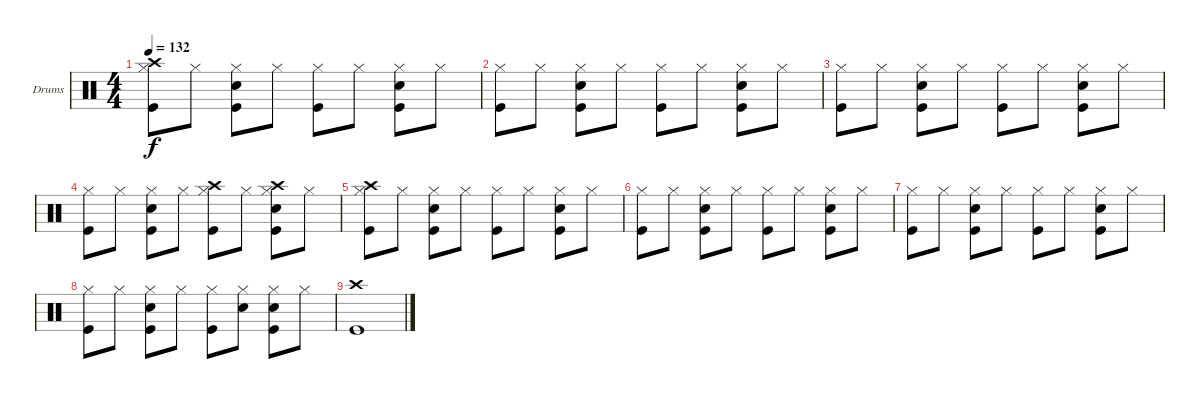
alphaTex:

\defaultSystemsLayout 4
\bracketExtendMode groupsimilarinstruments
\firstSystemTrackNameOrientation horizontal
\otherSystemsTrackNameOrientation horizontal
\track ("Drumkit" "Drums") {instrument percussion}
\staff {score}
\articulation defaults
\ts (4 4)
\tempo 132
\clef neutral
\ks c
("Hi-Hat (closed)" "Kick (hit)" "Crash high (hit)").8{dy f} "Hi-Hat (closed)".8 ("Hi-Hat (closed)" "Kick (hit)" "Snare (hit) 2").8 "Hi-Hat (closed)".8 ("Hi-Hat (closed)" "Kick (hit)").8 "Hi-Hat (closed)".8 ("Hi-Hat (closed)" "Kick (hit)" "Snare (hit) 2").8 "Hi-Hat (closed)".8 |
("Hi-Hat (closed)" "Kick (hit)").8 "Hi-Hat (closed)".8 ("Hi-Hat (closed)" "Kick (hit)" "Snare (hit) 2").8 "Hi-Hat (closed)".8 ("Hi-Hat (closed)" "Kick (hit)").8 "Hi-Hat (closed)".8 ("Hi-Hat (closed)" "Kick (hit)" "Snare (hit) 2").8 "Hi-Hat (closed)".8 |
("Hi-Hat (closed)" "Kick (hit)").8 "Hi-Hat (closed)".8 ("Hi-Hat (closed)" "Kick (hit)" "Snare (hit) 2").8 "Hi-Hat (closed)".8 ("Hi-Hat (closed)" "Kick (hit)").8 "Hi-Hat (closed)".8 ("Hi-Hat (closed)" "Kick (hit)" "Snare (hit) 2").8 "Hi-Hat (closed)".8 |
("Hi-Hat (closed)" "Kick (hit)").8 "Hi-Hat (closed)".8 ("Hi-Hat (closed)" "Kick (hit)" "Snare (hit) 2").8 "Hi-Hat (closed)".8 ("Hi-Hat (closed)" "Kick (hit)" "Crash high (hit)").8 "Hi-Hat (closed)".8 ("Hi-Hat (closed)" "Kick (hit)" "Snare (hit) 2" "Crash high (hit)").8 "Hi-Hat (closed)".8 |
("Hi-Hat (closed)" "Kick (hit)" "Crash high (hit)").8 "Hi-Hat (closed)".8 ("Hi-Hat (closed)" "Kick (hit)" "Snare (hit) 2").8 "Hi-Hat (closed)".8 ("Hi-Hat (closed)" "Kick (hit)").8 "Hi-Hat (closed)".8 ("Hi-Hat (closed)" "Kick (hit)" "Snare (hit) 2").8 "Hi-Hat (closed)".8 |
("Hi-Hat (closed)" "Kick (hit)").8 "Hi-Hat (closed)".8 ("Hi-Hat (closed)" "Kick (hit)" "Snare (hit) 2").8 "Hi-Hat (closed)".8 ("Hi-Hat (closed)" "Kick (hit)").8 "Hi-Hat (closed)".8 ("Hi-Hat (closed)" "Kick (hit)" "Snare (hit) 2").8 "Hi-Hat (closed)".8 |
("Hi-Hat (closed)" "Kick (hit)").8 "Hi-Hat (closed)".8 ("Hi-Hat (closed)" "Kick (hit)" "Snare (hit) 2").8 "Hi-Hat (closed)".8 ("Hi-Hat (closed)" "Kick (hit)").8 "Hi-Hat (closed)".8 ("Hi-Hat (closed)" "Kick (hit)" "Snare (hit) 2").8 "Hi-Hat (closed)".8 |
("Hi-Hat (closed)" "Kick (hit)").8 "Hi-Hat (closed)".8 ("Hi-Hat (closed)" "Kick (hit)" "Snare (hit) 2").8 "Hi-Hat (closed)".8 ("Hi-Hat (closed)" "Kick (hit)").8 ("Hi-Hat (closed)" "Snare (hit) 2").8 ("Hi-Hat (closed)" "Kick (hit)" "Snare (hit) 2").8 "Hi-Hat (closed)".8 |
("Kick (hit)" "Crash high (hit)").1
